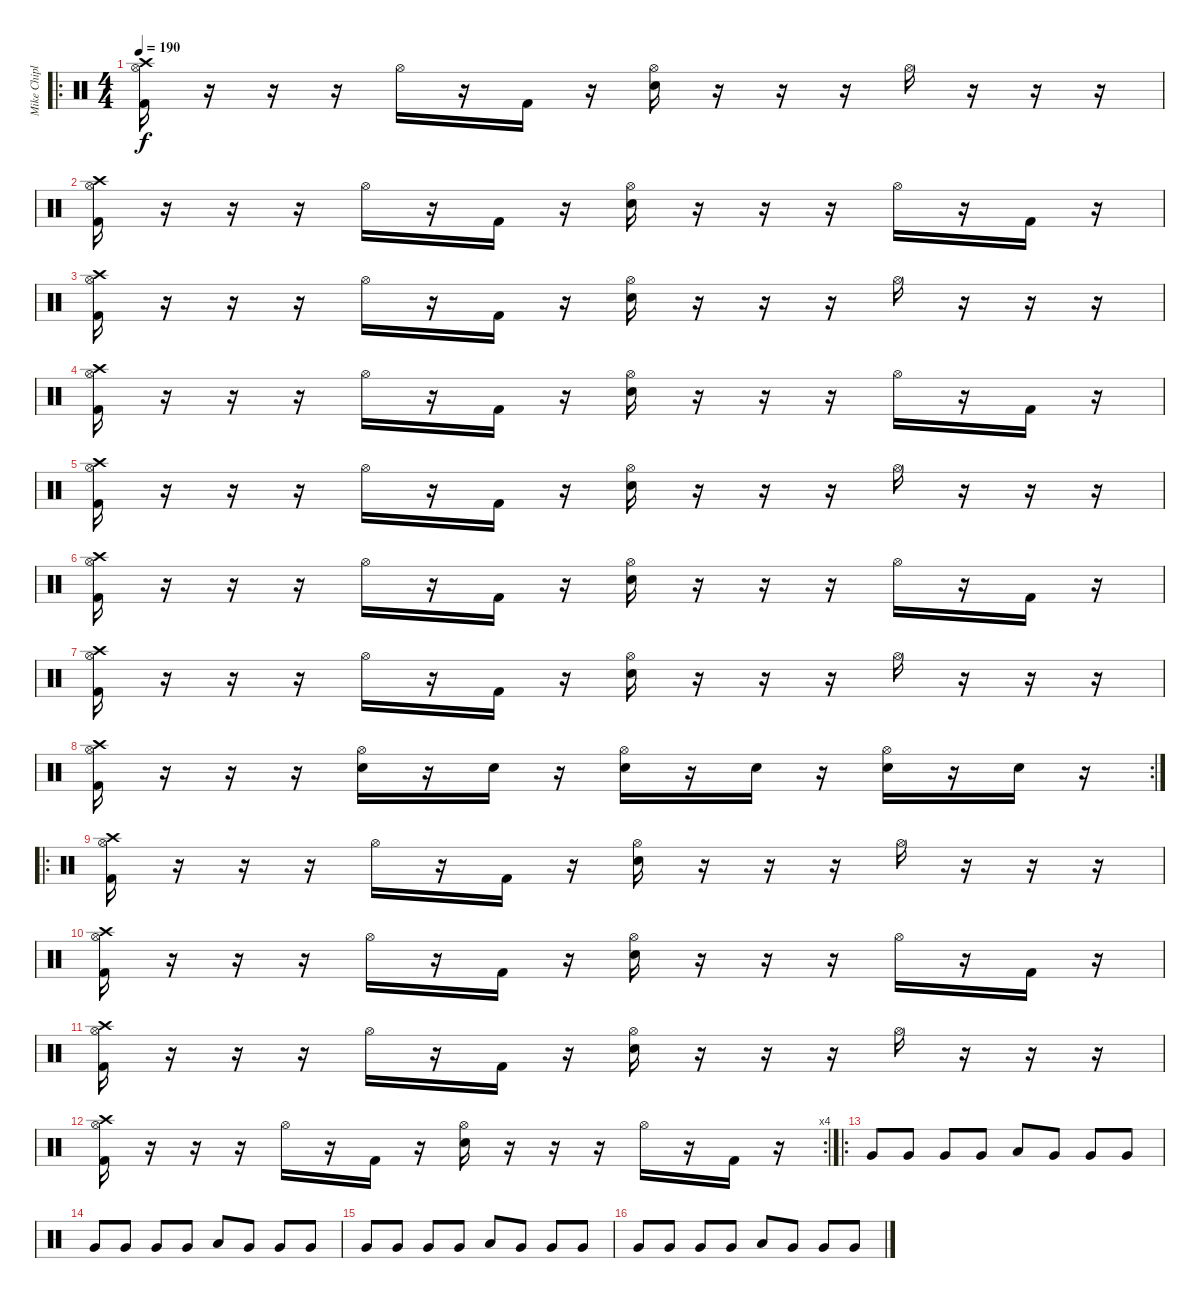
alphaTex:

\track ("Mike Chiplin" "Mike Chipl") {instrument percussion}
\staff {score}
\articulation defaults
\ro
\ts (4 4)
\tempo 190
\clef neutral
\ks c
("Hi-Hat (open)" "Kick (hit) 2" "Crash high (hit)").16{dy f} r.16 r.16 r.16 "Hi-Hat (open)".16 r.16 "Kick (hit) 2".16 r.16 ("Hi-Hat (open)" "Snare (hit) 2").16 r.16 r.16 r.16 "Hi-Hat (open)".16 r.16 r.16 r.16 |
("Hi-Hat (open)" "Kick (hit) 2" "Crash high (hit)").16 r.16 r.16 r.16 "Hi-Hat (open)".16 r.16 "Kick (hit) 2".16 r.16 ("Hi-Hat (open)" "Snare (hit) 2").16 r.16 r.16 r.16 "Hi-Hat (open)".16 r.16 "Kick (hit) 2".16 r.16 |
("Hi-Hat (open)" "Kick (hit) 2" "Crash high (hit)").16 r.16 r.16 r.16 "Hi-Hat (open)".16 r.16 "Kick (hit) 2".16 r.16 ("Hi-Hat (open)" "Snare (hit) 2").16 r.16 r.16 r.16 "Hi-Hat (open)".16 r.16 r.16 r.16 |
("Hi-Hat (open)" "Kick (hit) 2" "Crash high (hit)").16 r.16 r.16 r.16 "Hi-Hat (open)".16 r.16 "Kick (hit) 2".16 r.16 ("Hi-Hat (open)" "Snare (hit) 2").16 r.16 r.16 r.16 "Hi-Hat (open)".16 r.16 "Kick (hit) 2".16 r.16 |
("Hi-Hat (open)" "Kick (hit) 2" "Crash high (hit)").16 r.16 r.16 r.16 "Hi-Hat (open)".16 r.16 "Kick (hit) 2".16 r.16 ("Hi-Hat (open)" "Snare (hit) 2").16 r.16 r.16 r.16 "Hi-Hat (open)".16 r.16 r.16 r.16 |
("Hi-Hat (open)" "Kick (hit) 2" "Crash high (hit)").16 r.16 r.16 r.16 "Hi-Hat (open)".16 r.16 "Kick (hit) 2".16 r.16 ("Hi-Hat (open)" "Snare (hit) 2").16 r.16 r.16 r.16 "Hi-Hat (open)".16 r.16 "Kick (hit) 2".16 r.16 |
("Hi-Hat (open)" "Kick (hit) 2" "Crash high (hit)").16 r.16 r.16 r.16 "Hi-Hat (open)".16 r.16 "Kick (hit) 2".16 r.16 ("Hi-Hat (open)" "Snare (hit) 2").16 r.16 r.16 r.16 "Hi-Hat (open)".16 r.16 r.16 r.16 |
\rc 2
("Hi-Hat (open)" "Kick (hit) 2" "Crash high (hit)").16 r.16 r.16 r.16 ("Hi-Hat (open)" "Snare (hit) 2").16 r.16 "Snare (hit) 2".16 r.16 ("Hi-Hat (open)" "Snare (hit) 2").16 r.16 "Snare (hit) 2".16 r.16 ("Hi-Hat (open)" "Snare (hit) 2").16 r.16 "Snare (hit) 2".16 r.16 |
\ro
("Hi-Hat (open)" "Kick (hit) 2" "Crash high (hit)").16 r.16 r.16 r.16 "Hi-Hat (open)".16 r.16 "Kick (hit) 2".16 r.16 ("Hi-Hat (open)" "Snare (hit) 2").16 r.16 r.16 r.16 "Hi-Hat (open)".16 r.16 r.16 r.16 |
("Hi-Hat (open)" "Kick (hit) 2" "Crash high (hit)").16 r.16 r.16 r.16 "Hi-Hat (open)".16 r.16 "Kick (hit) 2".16 r.16 ("Hi-Hat (open)" "Snare (hit) 2").16 r.16 r.16 r.16 "Hi-Hat (open)".16 r.16 "Kick (hit) 2".16 r.16 |
("Hi-Hat (open)" "Kick (hit) 2" "Crash high (hit)").16 r.16 r.16 r.16 "Hi-Hat (open)".16 r.16 "Kick (hit) 2".16 r.16 ("Hi-Hat (open)" "Snare (hit) 2").16 r.16 r.16 r.16 "Hi-Hat (open)".16 r.16 r.16 r.16 |
\rc 4
("Hi-Hat (open)" "Kick (hit) 2" "Crash high (hit)").16 r.16 r.16 r.16 "Hi-Hat (open)".16 r.16 "Kick (hit) 2".16 r.16 ("Hi-Hat (open)" "Snare (hit) 2").16 r.16 r.16 r.16 "Hi-Hat (open)".16 r.16 "Kick (hit) 2".16 r.16 |
\ro "Very Low Tom (hit)".8 "Very Low Tom (hit)".8 "Very Low Tom (hit)".8 "Very Low Tom (hit)".8 "Low Tom (hit)".8 "Very Low Tom (hit)".8 "Very Low Tom (hit)".8 "Very Low Tom (hit)".8
|
"Very Low Tom (hit)".8 "Very Low Tom (hit)".8 "Very Low Tom (hit)".8 "Very Low Tom (hit)".8 "Low Tom (hit)".8 "Very Low Tom (hit)".8 "Very Low Tom (hit)".8 "Very Low Tom (hit)".8 |
"Very Low Tom (hit)".8 "Very Low Tom (hit)".8 "Very Low Tom (hit)".8 "Very Low Tom (hit)".8 "Low Tom (hit)".8 "Very Low Tom (hit)".8 "Very Low Tom (hit)".8 "Very Low Tom (hit)".8 |
"Very Low Tom (hit)".8 "Very Low Tom (hit)".8 "Very Low Tom (hit)".8 "Very Low Tom (hit)".8 "Low Tom (hit)".8 "Very Low Tom (hit)".8 "Very Low Tom (hit)".8 "Very Low Tom (hit)".8
